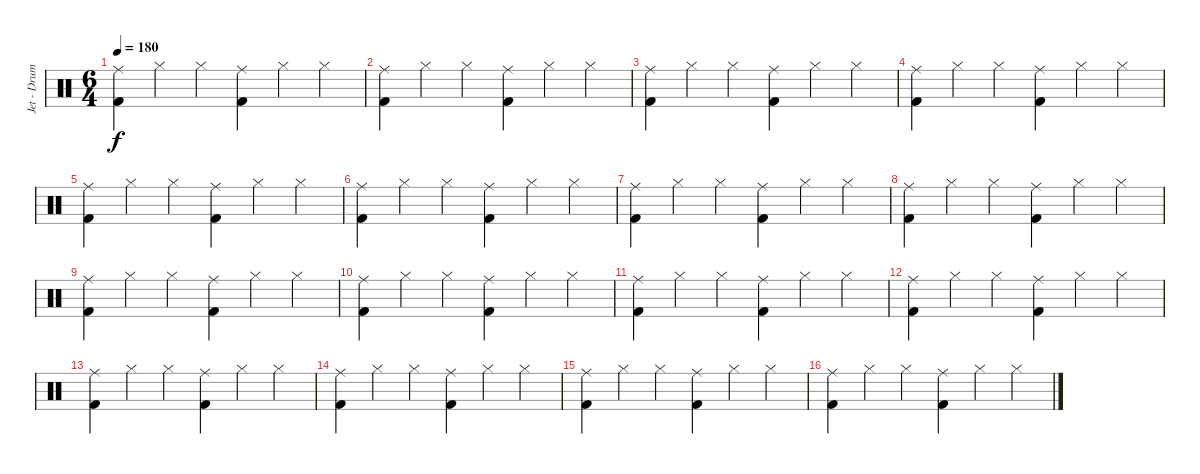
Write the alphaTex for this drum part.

\track ("Jet - Drums" "Jet - Drum") {instrument percussion}
\staff {score}
\articulation defaults
\ts (6 4)
\tempo 180
\clef neutral
\ks c
("Ride (middle)" "Kick (hit) 2").4{dy f} "Hi-Hat (closed)".4 "Hi-Hat (closed)".4 ("Ride (middle)" "Kick (hit) 2").4 "Hi-Hat (closed)".4 "Hi-Hat (closed)".4 |
("Ride (middle)" "Kick (hit) 2").4 "Hi-Hat (closed)".4 "Hi-Hat (closed)".4 ("Ride (middle)" "Kick (hit) 2").4 "Hi-Hat (closed)".4 "Hi-Hat (closed)".4 |
("Ride (middle)" "Kick (hit) 2").4 "Hi-Hat (closed)".4 "Hi-Hat (closed)".4 ("Ride (middle)" "Kick (hit) 2").4 "Hi-Hat (closed)".4 "Hi-Hat (closed)".4 |
("Ride (middle)" "Kick (hit) 2").4 "Hi-Hat (closed)".4 "Hi-Hat (closed)".4 ("Ride (middle)" "Kick (hit) 2").4 "Hi-Hat (closed)".4 "Hi-Hat (closed)".4 |
("Ride (middle)" "Kick (hit) 2").4 "Hi-Hat (closed)".4 "Hi-Hat (closed)".4 ("Ride (middle)" "Kick (hit) 2").4 "Hi-Hat (closed)".4 "Hi-Hat (closed)".4 |
("Ride (middle)" "Kick (hit) 2").4 "Hi-Hat (closed)".4 "Hi-Hat (closed)".4 ("Ride (middle)" "Kick (hit) 2").4 "Hi-Hat (closed)".4 "Hi-Hat (closed)".4 |
("Ride (middle)" "Kick (hit) 2").4 "Hi-Hat (closed)".4 "Hi-Hat (closed)".4 ("Ride (middle)" "Kick (hit) 2").4 "Hi-Hat (closed)".4 "Hi-Hat (closed)".4 |
("Ride (middle)" "Kick (hit) 2").4 "Hi-Hat (closed)".4 "Hi-Hat (closed)".4 ("Ride (middle)" "Kick (hit) 2").4 "Hi-Hat (closed)".4 "Hi-Hat (closed)".4 |
("Ride (middle)" "Kick (hit) 2").4 "Hi-Hat (closed)".4 "Hi-Hat (closed)".4 ("Ride (middle)" "Kick (hit) 2").4 "Hi-Hat (closed)".4 "Hi-Hat (closed)".4 |
("Ride (middle)" "Kick (hit) 2").4 "Hi-Hat (closed)".4 "Hi-Hat (closed)".4 ("Ride (middle)" "Kick (hit) 2").4 "Hi-Hat (closed)".4 "Hi-Hat (closed)".4 |
("Ride (middle)" "Kick (hit) 2").4 "Hi-Hat (closed)".4 "Hi-Hat (closed)".4 ("Ride (middle)" "Kick (hit) 2").4 "Hi-Hat (closed)".4 "Hi-Hat (closed)".4 |
("Ride (middle)" "Kick (hit) 2").4 "Hi-Hat (closed)".4 "Hi-Hat (closed)".4 ("Ride (middle)" "Kick (hit) 2").4 "Hi-Hat (closed)".4 "Hi-Hat (closed)".4 |
("Ride (middle)" "Kick (hit) 2").4 "Hi-Hat (closed)".4 "Hi-Hat (closed)".4 ("Ride (middle)" "Kick (hit) 2").4 "Hi-Hat (closed)".4 "Hi-Hat (closed)".4 |
("Ride (middle)" "Kick (hit) 2").4 "Hi-Hat (closed)".4 "Hi-Hat (closed)".4 ("Ride (middle)" "Kick (hit) 2").4 "Hi-Hat (closed)".4 "Hi-Hat (closed)".4 |
("Ride (middle)" "Kick (hit) 2").4 "Hi-Hat (closed)".4 "Hi-Hat (closed)".4 ("Ride (middle)" "Kick (hit) 2").4 "Hi-Hat (closed)".4 "Hi-Hat (closed)".4 |
("Ride (middle)" "Kick (hit) 2").4 "Hi-Hat (closed)".4 "Hi-Hat (closed)".4 ("Ride (middle)" "Kick (hit) 2").4 "Hi-Hat (closed)".4 "Hi-Hat (closed)".4
